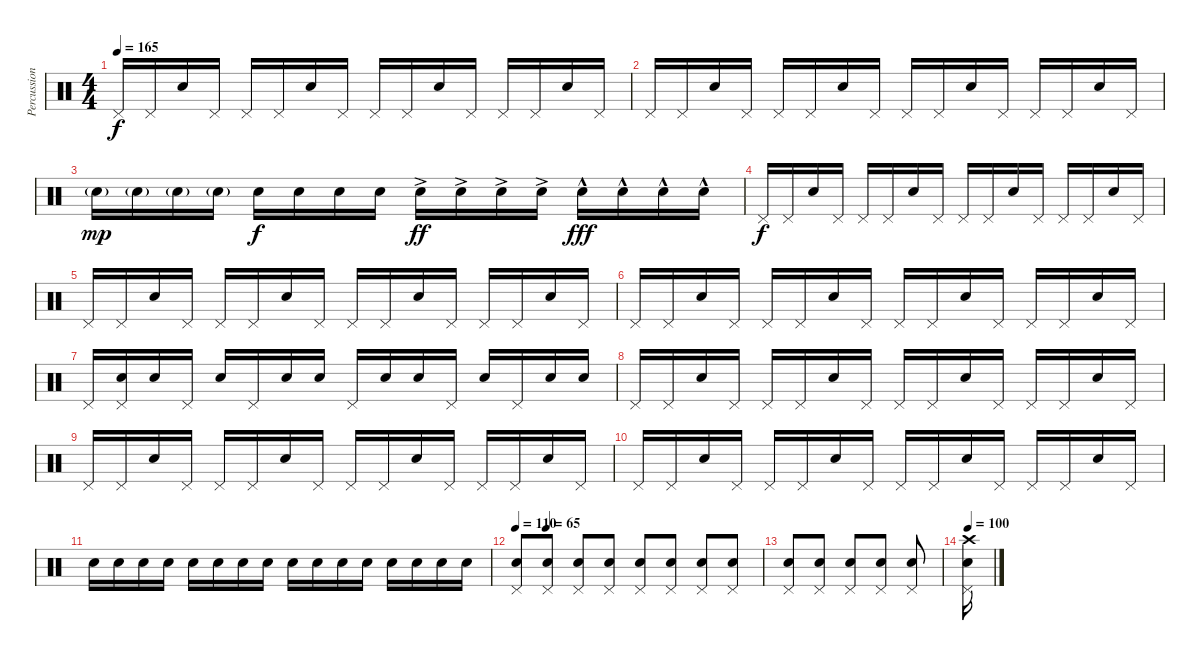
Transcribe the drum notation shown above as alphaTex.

\track ("Percussions" "Percussion") {instrument percussion}
\staff {score}
\articulation defaults
\ts (4 4)
\tempo 165
\clef neutral
\ks c "Pedal Hi-Hat (hit)".16{dy f} "Pedal Hi-Hat (hit)".16 "Snare (hit) 2".16 "Pedal Hi-Hat (hit)".16 "Pedal Hi-Hat (hit)".16 "Pedal Hi-Hat (hit)".16 "Snare (hit) 2".16 "Pedal Hi-Hat (hit)".16 "Pedal Hi-Hat (hit)".16 "Pedal Hi-Hat (hit)".16 "Snare (hit) 2".16 "Pedal Hi-Hat (hit)".16 "Pedal Hi-Hat (hit)".16 "Pedal Hi-Hat (hit)".16 "Snare (hit) 2".16 "Pedal Hi-Hat (hit)".16
|
"Pedal Hi-Hat (hit)".16 "Pedal Hi-Hat (hit)".16 "Snare (hit) 2".16 "Pedal Hi-Hat (hit)".16 "Pedal Hi-Hat (hit)".16 "Pedal Hi-Hat (hit)".16 "Snare (hit) 2".16 "Pedal Hi-Hat (hit)".16 "Pedal Hi-Hat (hit)".16 "Pedal Hi-Hat (hit)".16 "Snare (hit) 2".16 "Pedal Hi-Hat (hit)".16 "Pedal Hi-Hat (hit)".16 "Pedal Hi-Hat (hit)".16 "Snare (hit) 2".16 "Pedal Hi-Hat (hit)".16 |
"Snare (hit) 2"{g}.16{dy mp} "Snare (hit) 2"{g}.16 "Snare (hit) 2"{g}.16 "Snare (hit) 2"{g}.16 "Snare (hit) 2".16{dy f} "Snare (hit) 2".16 "Snare (hit) 2".16 "Snare (hit) 2".16 "Snare (hit) 2"{ac}.16{dy ff} "Snare (hit) 2"{ac}.16 "Snare (hit) 2"{ac}.16 "Snare (hit) 2"{ac}.16 "Snare (hit) 2"{hac}.16{dy fff} "Snare (hit) 2"{hac}.16 "Snare (hit) 2"{hac}.16 "Snare (hit) 2"{hac}.16 |
"Pedal Hi-Hat (hit)".16{dy f} "Pedal Hi-Hat (hit)".16 "Snare (hit) 2".16 "Pedal Hi-Hat (hit)".16 "Pedal Hi-Hat (hit)".16 "Pedal Hi-Hat (hit)".16 "Snare (hit) 2".16 "Pedal Hi-Hat (hit)".16 "Pedal Hi-Hat (hit)".16 "Pedal Hi-Hat (hit)".16 "Snare (hit) 2".16 "Pedal Hi-Hat (hit)".16 "Pedal Hi-Hat (hit)".16 "Pedal Hi-Hat (hit)".16 "Snare (hit) 2".16 "Pedal Hi-Hat (hit)".16 |
"Pedal Hi-Hat (hit)".16 "Pedal Hi-Hat (hit)".16 "Snare (hit) 2".16 "Pedal Hi-Hat (hit)".16 "Pedal Hi-Hat (hit)".16 "Pedal Hi-Hat (hit)".16 "Snare (hit) 2".16 "Pedal Hi-Hat (hit)".16 "Pedal Hi-Hat (hit)".16 "Pedal Hi-Hat (hit)".16 "Snare (hit) 2".16 "Pedal Hi-Hat (hit)".16 "Pedal Hi-Hat (hit)".16 "Pedal Hi-Hat (hit)".16 "Snare (hit) 2".16 "Pedal Hi-Hat (hit)".16 |
"Pedal Hi-Hat (hit)".16 "Pedal Hi-Hat (hit)".16 "Snare (hit) 2".16 "Pedal Hi-Hat (hit)".16 "Pedal Hi-Hat (hit)".16 "Pedal Hi-Hat (hit)".16 "Snare (hit) 2".16 "Pedal Hi-Hat (hit)".16 "Pedal Hi-Hat (hit)".16 "Pedal Hi-Hat (hit)".16 "Snare (hit) 2".16 "Pedal Hi-Hat (hit)".16 "Pedal Hi-Hat (hit)".16 "Pedal Hi-Hat (hit)".16 "Snare (hit) 2".16 "Pedal Hi-Hat (hit)".16 |
"Pedal Hi-Hat (hit)".16 ("Pedal Hi-Hat (hit)" "Snare (hit) 2").16 "Snare (hit) 2".16 "Pedal Hi-Hat (hit)".16 "Snare (hit) 2".16 "Pedal Hi-Hat (hit)".16 "Snare (hit) 2".16 "Snare (hit) 2".16 "Pedal Hi-Hat (hit)".16 "Snare (hit) 2".16 "Snare (hit) 2".16 "Pedal Hi-Hat (hit)".16 "Snare (hit) 2".16 "Pedal Hi-Hat (hit)".16 "Snare (hit) 2".16 "Snare (hit) 2".16 |
"Pedal Hi-Hat (hit)".16 "Pedal Hi-Hat (hit)".16 "Snare (hit) 2".16 "Pedal Hi-Hat (hit)".16 "Pedal Hi-Hat (hit)".16 "Pedal Hi-Hat (hit)".16 "Snare (hit) 2".16 "Pedal Hi-Hat (hit)".16 "Pedal Hi-Hat (hit)".16 "Pedal Hi-Hat (hit)".16 "Snare (hit) 2".16 "Pedal Hi-Hat (hit)".16 "Pedal Hi-Hat (hit)".16 "Pedal Hi-Hat (hit)".16 "Snare (hit) 2".16 "Pedal Hi-Hat (hit)".16 |
"Pedal Hi-Hat (hit)".16 "Pedal Hi-Hat (hit)".16 "Snare (hit) 2".16 "Pedal Hi-Hat (hit)".16 "Pedal Hi-Hat (hit)".16 "Pedal Hi-Hat (hit)".16 "Snare (hit) 2".16 "Pedal Hi-Hat (hit)".16 "Pedal Hi-Hat (hit)".16 "Pedal Hi-Hat (hit)".16 "Snare (hit) 2".16 "Pedal Hi-Hat (hit)".16 "Pedal Hi-Hat (hit)".16 "Pedal Hi-Hat (hit)".16 "Snare (hit) 2".16 "Pedal Hi-Hat (hit)".16 |
"Pedal Hi-Hat (hit)".16 "Pedal Hi-Hat (hit)".16 "Snare (hit) 2".16 "Pedal Hi-Hat (hit)".16 "Pedal Hi-Hat (hit)".16 "Pedal Hi-Hat (hit)".16 "Snare (hit) 2".16 "Pedal Hi-Hat (hit)".16 "Pedal Hi-Hat (hit)".16 "Pedal Hi-Hat (hit)".16 "Snare (hit) 2".16 "Pedal Hi-Hat (hit)".16 "Pedal Hi-Hat (hit)".16 "Pedal Hi-Hat (hit)".16 "Snare (hit) 2".16 "Pedal Hi-Hat (hit)".16 |
"Snare (hit) 2".16 "Snare (hit) 2".16 "Snare (hit) 2".16 "Snare (hit) 2".16 "Snare (hit) 2".16 "Snare (hit) 2".16 "Snare (hit) 2".16 "Snare (hit) 2".16 "Snare (hit) 2".16 "Snare (hit) 2".16 "Snare (hit) 2".16 "Snare (hit) 2".16 "Snare (hit) 2".16 "Snare (hit) 2".16 "Snare (hit) 2".16 "Snare (hit) 2".16 |
\tempo 160
\tempo 110
\tempo (65 0.125)
("Pedal Hi-Hat (hit)" "Snare (hit) 2").8 ("Pedal Hi-Hat (hit)" "Snare (hit) 2").8 ("Pedal Hi-Hat (hit)" "Snare (hit) 2").8 ("Pedal Hi-Hat (hit)" "Snare (hit) 2").8 ("Pedal Hi-Hat (hit)" "Snare (hit) 2").8 ("Pedal Hi-Hat (hit)" "Snare (hit) 2").8 ("Pedal Hi-Hat (hit)" "Snare (hit) 2").8 ("Pedal Hi-Hat (hit)" "Snare (hit) 2").8 |
("Pedal Hi-Hat (hit)" "Snare (hit) 2").8 ("Pedal Hi-Hat (hit)" "Snare (hit) 2").8 ("Pedal Hi-Hat (hit)" "Snare (hit) 2").8 ("Pedal Hi-Hat (hit)" "Snare (hit) 2").8 ("Pedal Hi-Hat (hit)" "Snare (hit) 2").8 |
\tempo 100
("Crash high (hit)" "Snare (hit) 2" "Pedal Hi-Hat (hit)").16
